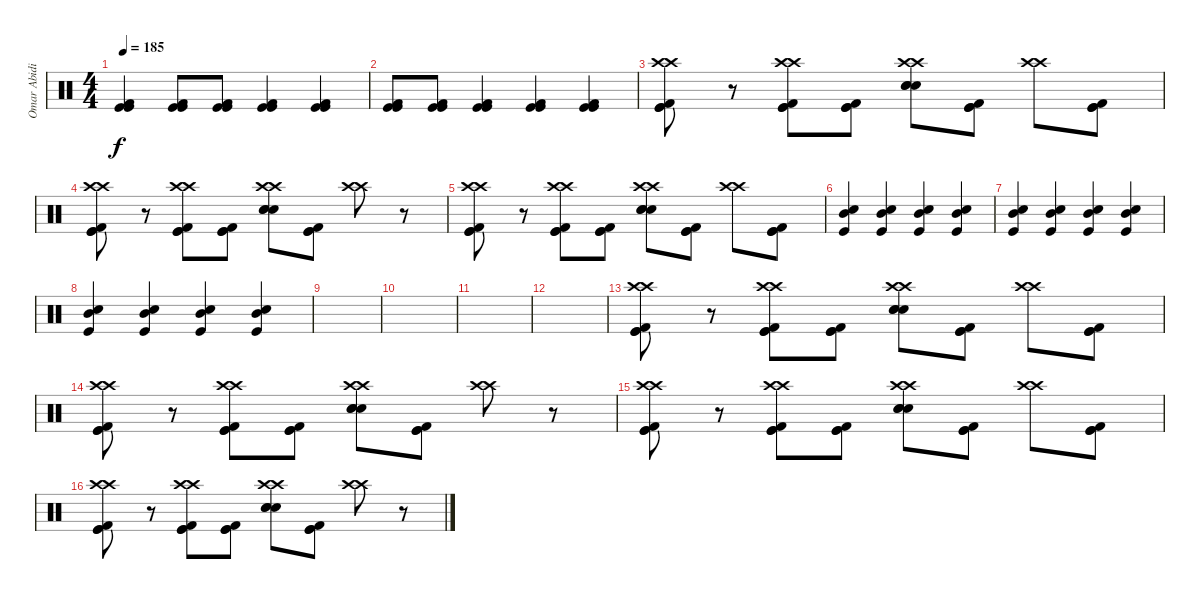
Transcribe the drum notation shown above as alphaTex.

\track ("Omar Abidi" "Omar Abidi") {instrument percussion}
\staff {score}
\articulation defaults
\ts (4 4)
\tempo 185
\clef neutral
\ks c
("Kick (hit) 2" "Kick (hit)" "Kick (hit)").4{dy f} ("Kick (hit) 2" "Kick (hit)" "Kick (hit)").8 ("Kick (hit) 2" "Kick (hit)" "Kick (hit)").8 ("Kick (hit) 2" "Kick (hit)" "Kick (hit)").4 ("Kick (hit) 2" "Kick (hit)" "Kick (hit)").4 |
("Kick (hit) 2" "Kick (hit)" "Kick (hit)").8 ("Kick (hit) 2" "Kick (hit)" "Kick (hit)").8 ("Kick (hit) 2" "Kick (hit)" "Kick (hit)").4 ("Kick (hit) 2" "Kick (hit)" "Kick (hit)").4 ("Kick (hit) 2" "Kick (hit)" "Kick (hit)").4 |
("Crash high (hit)" "Crash high (hit)" "Kick (hit) 2" "Kick (hit)" "Kick (hit)").8 r.8 ("Crash high (hit)" "Crash high (hit)" "Kick (hit) 2" "Kick (hit)" "Kick (hit)").8 ("Kick (hit) 2" "Kick (hit)" "Kick (hit)").8 ("Crash high (hit)" "Crash high (hit)" "Snare (hit) 2" "Electric Snare (hit)" "Snare (hit) 2").8 ("Kick (hit) 2" "Kick (hit)" "Kick (hit)").8 ("Crash high (hit)" "Crash high (hit)").8 ("Kick (hit) 2" "Kick (hit)" "Kick (hit)").8 |
("Crash high (hit)" "Crash high (hit)" "Kick (hit) 2" "Kick (hit)" "Kick (hit)").8 r.8 ("Crash high (hit)" "Crash high (hit)" "Kick (hit) 2" "Kick (hit)" "Kick (hit)").8 ("Kick (hit) 2" "Kick (hit)" "Kick (hit)").8 ("Crash high (hit)" "Crash high (hit)" "Snare (hit) 2" "Snare (hit) 2" "Electric Snare (hit)").8 ("Kick (hit) 2" "Kick (hit)" "Kick (hit)").8 ("Crash high (hit)" "Crash high (hit)").8 r.8 |
("Crash high (hit)" "Crash high (hit)" "Kick (hit) 2" "Kick (hit)" "Kick (hit)").8 r.8 ("Crash high (hit)" "Crash high (hit)" "Kick (hit) 2" "Kick (hit)" "Kick (hit)").8 ("Kick (hit) 2" "Kick (hit)" "Kick (hit)").8 ("Crash high (hit)" "Crash high (hit)" "Snare (hit) 2" "Electric Snare (hit)" "Snare (hit) 2").8 ("Kick (hit) 2" "Kick (hit)" "Kick (hit)").8 ("Crash high (hit)" "Crash high (hit)").8 ("Kick (hit) 2" "Kick (hit)" "Kick (hit)").8 |
("Mid Tom (hit)" "Snare (hit) 2" "Kick (hit)").4 ("Mid Tom (hit)" "Snare (hit) 2" "Kick (hit)").4 ("Mid Tom (hit)" "Snare (hit) 2" "Kick (hit)").4 ("Mid Tom (hit)" "Snare (hit) 2" "Kick (hit)").4 |
("Mid Tom (hit)" "Snare (hit) 2" "Kick (hit)").4 ("Mid Tom (hit)" "Snare (hit) 2" "Kick (hit)").4 ("Mid Tom (hit)" "Snare (hit) 2" "Kick (hit)").4 ("Mid Tom (hit)" "Snare (hit) 2" "Kick (hit)").4 |
("Mid Tom (hit)" "Snare (hit) 2" "Kick (hit)").4 ("Mid Tom (hit)" "Snare (hit) 2" "Kick (hit)").4 ("Mid Tom (hit)" "Snare (hit) 2" "Kick (hit)").4 ("Mid Tom (hit)" "Snare (hit) 2" "Kick (hit)").4 |
|
|
|
|
("Crash high (hit)" "Crash high (hit)" "Kick (hit) 2" "Kick (hit)" "Kick (hit)").8 r.8 ("Crash high (hit)" "Crash high (hit)" "Kick (hit) 2" "Kick (hit)" "Kick (hit)").8 ("Kick (hit) 2" "Kick (hit)" "Kick (hit)").8 ("Crash high (hit)" "Crash high (hit)" "Snare (hit) 2" "Electric Snare (hit)" "Snare (hit) 2").8 ("Kick (hit) 2" "Kick (hit)" "Kick (hit)").8 ("Crash high (hit)" "Crash high (hit)").8 ("Kick (hit) 2" "Kick (hit)" "Kick (hit)").8 |
("Crash high (hit)" "Crash high (hit)" "Kick (hit) 2" "Kick (hit)" "Kick (hit)").8 r.8 ("Crash high (hit)" "Crash high (hit)" "Kick (hit) 2" "Kick (hit)" "Kick (hit)").8 ("Kick (hit) 2" "Kick (hit)" "Kick (hit)").8 ("Crash high (hit)" "Crash high (hit)" "Snare (hit) 2" "Snare (hit) 2" "Electric Snare (hit)").8 ("Kick (hit) 2" "Kick (hit)" "Kick (hit)").8 ("Crash high (hit)" "Crash high (hit)").8 r.8 |
("Crash high (hit)" "Crash high (hit)" "Kick (hit) 2" "Kick (hit)" "Kick (hit)").8 r.8 ("Crash high (hit)" "Crash high (hit)" "Kick (hit) 2" "Kick (hit)" "Kick (hit)").8 ("Kick (hit) 2" "Kick (hit)" "Kick (hit)").8 ("Crash high (hit)" "Crash high (hit)" "Snare (hit) 2" "Electric Snare (hit)" "Snare (hit) 2").8 ("Kick (hit) 2" "Kick (hit)" "Kick (hit)").8 ("Crash high (hit)" "Crash high (hit)").8 ("Kick (hit) 2" "Kick (hit)" "Kick (hit)").8 |
("Crash high (hit)" "Crash high (hit)" "Kick (hit) 2" "Kick (hit)" "Kick (hit)").8 r.8 ("Crash high (hit)" "Crash high (hit)" "Kick (hit) 2" "Kick (hit)" "Kick (hit)").8 ("Kick (hit) 2" "Kick (hit)" "Kick (hit)").8 ("Crash high (hit)" "Crash high (hit)" "Snare (hit) 2" "Snare (hit) 2" "Electric Snare (hit)").8 ("Kick (hit) 2" "Kick (hit)" "Kick (hit)").8 ("Crash high (hit)" "Crash high (hit)").8 r.8
